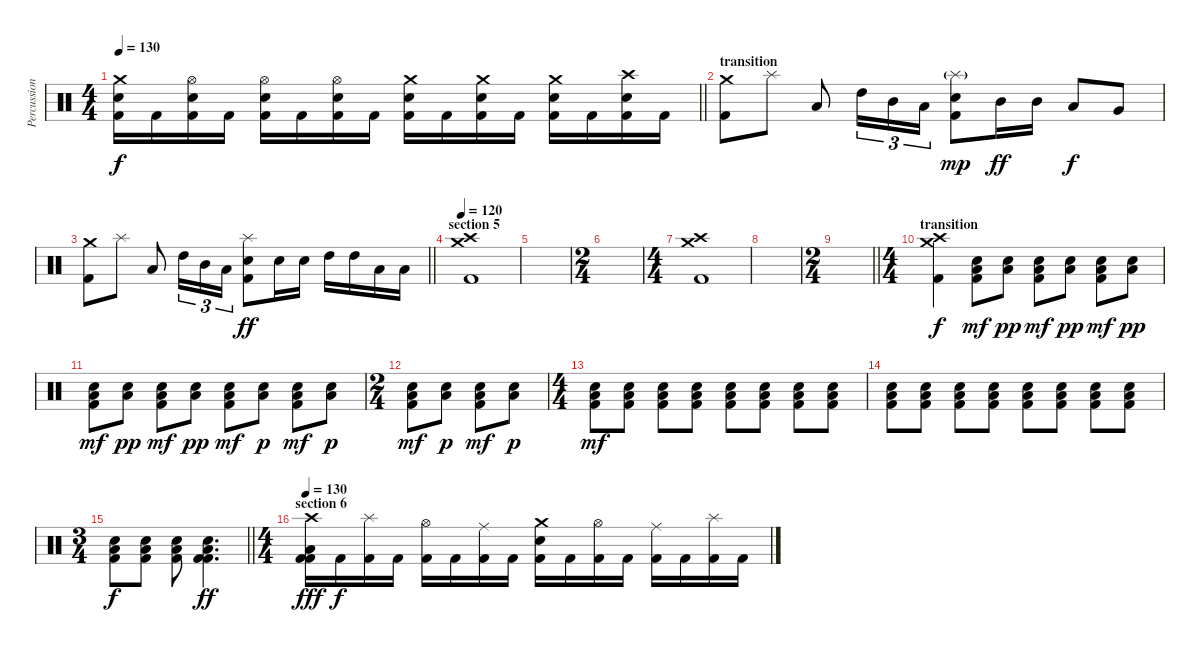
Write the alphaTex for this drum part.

\track ("Percussion" "Percussion") {instrument percussion}
\staff {score}
\articulation defaults
\ts (4 4)
\tempo 130
\clef neutral
\barLineRight lightlight
\ks c
("Crash medium (hit)" "Electric Snare (hit)" "Kick (hit) 2").16{dy f} "Kick (hit) 2".16 ("Hi-Hat (open)" "Electric Snare (hit)" "Kick (hit) 2").16 "Kick (hit) 2".16 ("Hi-Hat (open)" "Electric Snare (hit)" "Kick (hit) 2").16 "Kick (hit) 2".16 ("Hi-Hat (open)" "Electric Snare (hit)" "Kick (hit) 2").16 "Kick (hit) 2".16 ("Crash medium (hit)" "Electric Snare (hit)" "Kick (hit) 2").16 "Kick (hit) 2".16 ("Crash medium (hit)" "Electric Snare (hit)" "Kick (hit) 2").16 "Kick (hit) 2".16 ("Crash medium (hit)" "Electric Snare (hit)" "Kick (hit) 2").16 "Kick (hit) 2".16 ("Crash high (hit)" "Electric Snare (hit)" "Kick (hit) 2").16 "Kick (hit) 2".16 |
\section ("" "transition")
("Crash medium (hit)" "Kick (hit) 2").8 "Splash (hit)".8 "Low Tom (hit)".8 "High Tom (hit)".16{tu (3 2)} "Mid Tom (hit)".16{tu (3 2)} "Low Tom (hit)".16{tu (3 2)} ("Splash (hit)"{g} "Electric Snare (hit)" "Kick (hit) 2").8{dy mp} "Mid Tom (hit)".16{dy ff} "Mid Tom (hit)".16 "Low Tom (hit)".8{dy f} "Very Low Tom (hit)".8 |
\barLineRight lightlight
("Crash medium (hit)" "Kick (hit) 2").8 "Splash (hit)".8 "Low Tom (hit)".8 "High Tom (hit)".16{tu (3 2)} "Mid Tom (hit)".16{tu (3 2)} "Low Tom (hit)".16{tu (3 2)} ("Splash (hit)" "Electric Snare (hit)" "Kick (hit) 2").8{dy ff} "Electric Snare (hit)".16 "Electric Snare (hit)".16 "High Tom (hit)".16 "High Tom (hit)".16 "Low Tom (hit)".16 "Low Tom (hit)".16 |
\section ("" "section 5")
\tempo 120
("Crash medium (hit)" "Crash high (hit)" "Kick (hit) 2").1 |
|
\ts (2 4)
|
\ts (4 4)
("Crash medium (hit)" "Crash high (hit)" "Kick (hit) 2").1 |
|
\ts (2 4)
\barLineRight lightlight
|
\ts (4 4)
\section ("" "transition")
("Crash medium (hit)" "Crash high (hit)" "Kick (hit) 2").4{dy f} ("Electric Snare (hit)" "Low Floor Tom (hit)" "Kick (hit) 2").8{dy mf} ("Electric Snare (hit)" "Low Floor Tom (hit)").8{dy pp} ("Electric Snare (hit)" "Low Floor Tom (hit)" "Kick (hit) 2").8{dy mf} ("Electric Snare (hit)" "Low Floor Tom (hit)").8{dy pp} ("Electric Snare (hit)" "Low Floor Tom (hit)" "Kick (hit) 2").8{dy mf} ("Electric Snare (hit)" "Low Floor Tom (hit)").8{dy pp} |
("Electric Snare (hit)" "Low Floor Tom (hit)" "Kick (hit) 2").8{dy mf} ("Electric Snare (hit)" "Low Floor Tom (hit)").8{dy pp} ("Electric Snare (hit)" "Low Floor Tom (hit)" "Kick (hit) 2").8{dy mf} ("Electric Snare (hit)" "Low Floor Tom (hit)").8{dy pp} ("Electric Snare (hit)" "Low Floor Tom (hit)" "Kick (hit) 2").8{dy mf} ("Electric Snare (hit)" "Low Floor Tom (hit)").8{dy p} ("Electric Snare (hit)" "Low Floor Tom (hit)" "Kick (hit) 2").8{dy mf} ("Electric Snare (hit)" "Low Floor Tom (hit)").8{dy p} |
\ts (2 4)
("Electric Snare (hit)" "Low Floor Tom (hit)" "Kick (hit) 2").8{dy mf} ("Electric Snare (hit)" "Low Floor Tom (hit)").8{dy p} ("Electric Snare (hit)" "Low Floor Tom (hit)" "Kick (hit) 2").8{dy mf} ("Electric Snare (hit)" "Low Floor Tom (hit)").8{dy p} |
\ts (4 4)
("Electric Snare (hit)" "Low Floor Tom (hit)" "Kick (hit) 2").8{dy mf} ("Electric Snare (hit)" "Low Floor Tom (hit)" "Kick (hit) 2").8 ("Electric Snare (hit)" "Low Floor Tom (hit)" "Kick (hit) 2").8 ("Electric Snare (hit)" "Low Floor Tom (hit)" "Kick (hit) 2").8 ("Electric Snare (hit)" "Low Floor Tom (hit)" "Kick (hit) 2").8 ("Electric Snare (hit)" "Low Floor Tom (hit)" "Kick (hit) 2").8 ("Electric Snare (hit)" "Low Floor Tom (hit)" "Kick (hit) 2").8 ("Electric Snare (hit)" "Low Floor Tom (hit)" "Kick (hit) 2").8 |
("Electric Snare (hit)" "Low Floor Tom (hit)" "Kick (hit) 2").8 ("Electric Snare (hit)" "Low Floor Tom (hit)" "Kick (hit) 2").8 ("Electric Snare (hit)" "Low Floor Tom (hit)" "Kick (hit) 2").8 ("Electric Snare (hit)" "Low Floor Tom (hit)" "Kick (hit) 2").8 ("Electric Snare (hit)" "Low Floor Tom (hit)" "Kick (hit) 2").8 ("Electric Snare (hit)" "Low Floor Tom (hit)" "Kick (hit) 2").8 ("Electric Snare (hit)" "Low Floor Tom (hit)" "Kick (hit) 2").8 ("Electric Snare (hit)" "Low Floor Tom (hit)" "Kick (hit) 2").8 |
\ts (3 4)
\barLineRight lightlight
("Electric Snare (hit)" "Low Floor Tom (hit)" "Kick (hit) 2").8{dy f} ("Electric Snare (hit)" "Low Floor Tom (hit)" "Kick (hit) 2").8 ("Electric Snare (hit)" "Low Floor Tom (hit)" "Kick (hit) 2").8 ("Electric Snare (hit)" "Low Floor Tom (hit)" "Kick (hit) 2" "Kick (hit) 2").4{d dy ff} |
\ts (4 4)
\section ("" "section 6")
\tempo 130
("Crash high (hit)" "Low Floor Tom (hit)" "Kick (hit) 2" "Kick (hit) 2").16{dy fff} "Kick (hit) 2".16{dy f} ("Splash (hit)" "Kick (hit) 2").16 "Kick (hit) 2".16 ("Hi-Hat (open)" "Kick (hit) 2").16 "Kick (hit) 2".16 ("Ride (middle)" "Kick (hit) 2").16 "Kick (hit) 2".16 ("Crash medium (hit)" "Electric Snare (hit)" "Kick (hit) 2").16 "Kick (hit) 2".16 ("Hi-Hat (open)" "Kick (hit) 2").16 "Kick (hit) 2".16 ("Ride (middle)" "Kick (hit) 2").16 "Kick (hit) 2".16 ("Splash (hit)" "Kick (hit) 2").16 "Kick (hit) 2".16
